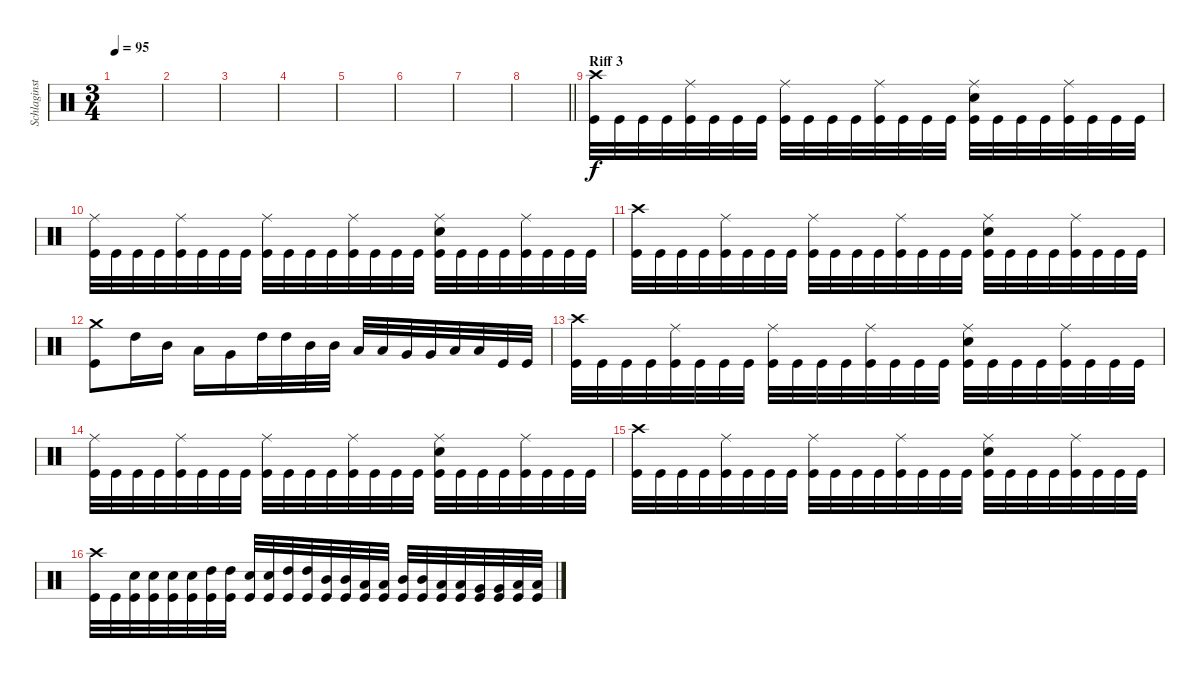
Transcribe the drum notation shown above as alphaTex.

\track ("Schlaginstrumente - Auswahl" "Schlaginst") {instrument percussion}
\staff {score}
\articulation defaults
\ts (3 4)
\tempo 95
\clef neutral
\ks c
|
|
|
|
|
|
|
\barLineRight lightlight
|
\section ("" "Riff 3")
("Kick (hit)" "Crash high (hit)").32 "Kick (hit)".32 "Kick (hit)".32 "Kick (hit)".32 ("Kick (hit)" "Ride (middle)").32 "Kick (hit)".32 "Kick (hit)".32 "Kick (hit)".32 ("Kick (hit)" "Ride (middle)").32 "Kick (hit)".32 "Kick (hit)".32 "Kick (hit)".32 ("Kick (hit)" "Ride (middle)").32 "Kick (hit)".32 "Kick (hit)".32 "Kick (hit)".32 ("Kick (hit)" "Ride (middle)" "Snare (hit) 2").32 "Kick (hit)".32 "Kick (hit)".32 "Kick (hit)".32 ("Kick (hit)" "Ride (middle)").32 "Kick (hit)".32 "Kick (hit)".32 "Kick (hit)".32 |
("Kick (hit)" "Ride (middle)").32 "Kick (hit)".32 "Kick (hit)".32 "Kick (hit)".32 ("Kick (hit)" "Ride (middle)").32 "Kick (hit)".32 "Kick (hit)".32 "Kick (hit)".32 ("Kick (hit)" "Ride (middle)").32 "Kick (hit)".32 "Kick (hit)".32 "Kick (hit)".32 ("Kick (hit)" "Ride (middle)").32 "Kick (hit)".32 "Kick (hit)".32 "Kick (hit)".32 ("Kick (hit)" "Ride (middle)" "Snare (hit) 2").32 "Kick (hit)".32 "Kick (hit)".32 "Kick (hit)".32 ("Kick (hit)" "Ride (middle)").32 "Kick (hit)".32 "Kick (hit)".32 "Kick (hit)".32 |
("Kick (hit)" "Crash high (hit)").32 "Kick (hit)".32 "Kick (hit)".32 "Kick (hit)".32 ("Kick (hit)" "Ride (middle)").32 "Kick (hit)".32 "Kick (hit)".32 "Kick (hit)".32 ("Kick (hit)" "Ride (middle)").32 "Kick (hit)".32 "Kick (hit)".32 "Kick (hit)".32 ("Kick (hit)" "Ride (middle)").32 "Kick (hit)".32 "Kick (hit)".32 "Kick (hit)".32 ("Kick (hit)" "Ride (middle)" "Snare (hit) 2").32 "Kick (hit)".32 "Kick (hit)".32 "Kick (hit)".32 ("Kick (hit)" "Ride (middle)").32 "Kick (hit)".32 "Kick (hit)".32 "Kick (hit)".32 |
("Kick (hit)" "Crash medium (hit)").8 "High Tom (hit)".16 "Mid Tom (hit)".16 "Low Tom (hit)".16 "Very Low Tom (hit)".16 "High Tom (hit)".32 "High Tom (hit)".32 "Mid Tom (hit)".32 "Mid Tom (hit)".32 "Low Tom (hit)".32 "Low Tom (hit)".32 "Very Low Tom (hit)".32 "Very Low Tom (hit)".32 "Low Floor Tom (hit)".32 "Low Floor Tom (hit)".32 "Kick (hit)".32 "Kick (hit)".32 |
("Kick (hit)" "Crash high (hit)").32 "Kick (hit)".32 "Kick (hit)".32 "Kick (hit)".32 ("Kick (hit)" "Ride (middle)").32 "Kick (hit)".32 "Kick (hit)".32 "Kick (hit)".32 ("Kick (hit)" "Ride (middle)").32 "Kick (hit)".32 "Kick (hit)".32 "Kick (hit)".32 ("Kick (hit)" "Ride (middle)").32 "Kick (hit)".32 "Kick (hit)".32 "Kick (hit)".32 ("Kick (hit)" "Ride (middle)" "Snare (hit) 2").32 "Kick (hit)".32 "Kick (hit)".32 "Kick (hit)".32 ("Kick (hit)" "Ride (middle)").32 "Kick (hit)".32 "Kick (hit)".32 "Kick (hit)".32 |
("Kick (hit)" "Ride (middle)").32 "Kick (hit)".32 "Kick (hit)".32 "Kick (hit)".32 ("Kick (hit)" "Ride (middle)").32 "Kick (hit)".32 "Kick (hit)".32 "Kick (hit)".32 ("Kick (hit)" "Ride (middle)").32 "Kick (hit)".32 "Kick (hit)".32 "Kick (hit)".32 ("Kick (hit)" "Ride (middle)").32 "Kick (hit)".32 "Kick (hit)".32 "Kick (hit)".32 ("Kick (hit)" "Ride (middle)" "Snare (hit) 2").32 "Kick (hit)".32 "Kick (hit)".32 "Kick (hit)".32 ("Kick (hit)" "Ride (middle)").32 "Kick (hit)".32 "Kick (hit)".32 "Kick (hit)".32 |
("Kick (hit)" "Crash high (hit)").32 "Kick (hit)".32 "Kick (hit)".32 "Kick (hit)".32 ("Kick (hit)" "Ride (middle)").32 "Kick (hit)".32 "Kick (hit)".32 "Kick (hit)".32 ("Kick (hit)" "Ride (middle)").32 "Kick (hit)".32 "Kick (hit)".32 "Kick (hit)".32 ("Kick (hit)" "Ride (middle)").32 "Kick (hit)".32 "Kick (hit)".32 "Kick (hit)".32 ("Kick (hit)" "Ride (middle)" "Snare (hit) 2").32 "Kick (hit)".32 "Kick (hit)".32 "Kick (hit)".32 ("Kick (hit)" "Ride (middle)").32 "Kick (hit)".32 "Kick (hit)".32 "Kick (hit)".32 |
("Kick (hit)" "Crash high (hit)").32 "Kick (hit)".32 ("Kick (hit)" "Snare (hit) 2").32 ("Kick (hit)" "Snare (hit) 2").32 ("Kick (hit)" "Snare (hit) 2").32 ("Kick (hit)" "Snare (hit) 2").32 ("Kick (hit)" "High Tom (hit)").32 ("Kick (hit)" "High Tom (hit)").32 ("Snare (hit) 2" "Kick (hit)").32 ("Kick (hit)" "Snare (hit) 2").32 ("Kick (hit)" "High Tom (hit)").32 ("Kick (hit)" "High Tom (hit)").32 ("Kick (hit)" "Mid Tom (hit)").32 ("Kick (hit)" "Mid Tom (hit)").32 ("Kick (hit)" "Low Tom (hit)").32 ("Low Tom (hit)" "Kick (hit)").32 ("Kick (hit)" "Mid Tom (hit)").32 ("Kick (hit)" "Mid Tom (hit)").32 ("Kick (hit)" "Low Tom (hit)").32 ("Kick (hit)" "Low Tom (hit)").32 ("Kick (hit)" "Very Low Tom (hit)").32 ("Kick (hit)" "Very Low Tom (hit)").32 ("Kick (hit)" "Low Floor Tom (hit)").32 ("Kick (hit)" "Low Floor Tom (hit)").32
